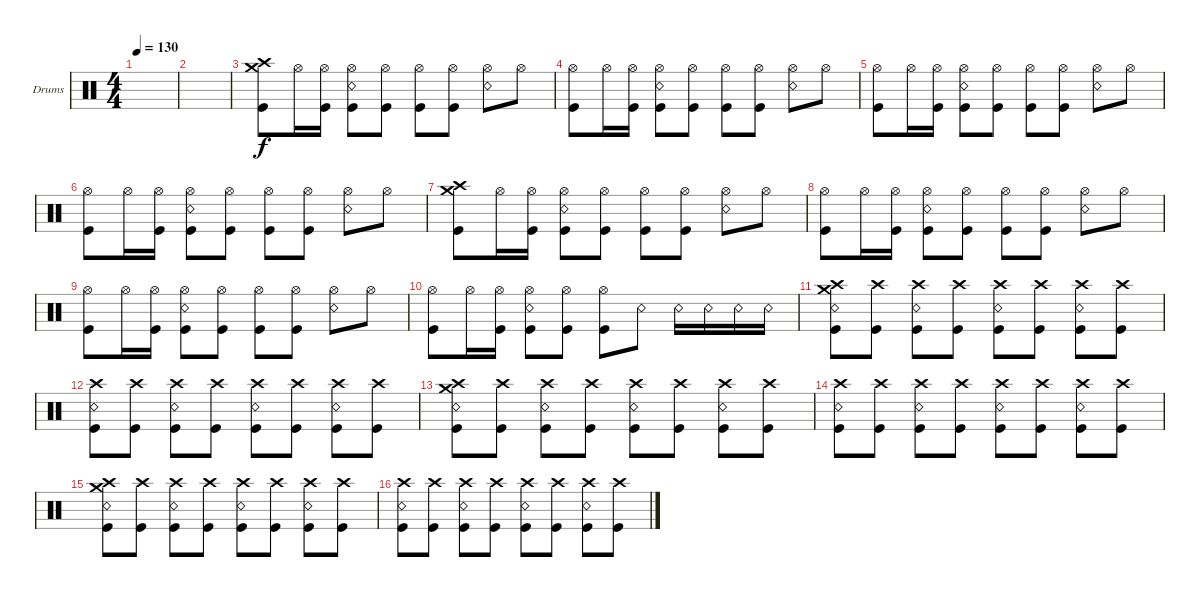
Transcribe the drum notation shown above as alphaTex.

\defaultSystemsLayout 4
\bracketExtendMode groupsimilarinstruments
\firstSystemTrackNameOrientation horizontal
\otherSystemsTrackNameOrientation horizontal
\track ("Drumkit" "Drums") {instrument percussion}
\staff {score}
\articulation defaults
\ts (4 4)
\tempo 130
\clef neutral
\ks c
|
|
("Crash medium (hit)" "Crash high (hit)" "Kick (hit)").8 "Hi-Hat (open)".16 ("Hi-Hat (open)" "Kick (hit)").16 ("Hi-Hat (open)" "Kick (hit)" "Snare (rim shot)").8 ("Hi-Hat (open)" "Kick (hit)").8 ("Kick (hit)" "Hi-Hat (open)").8 ("Kick (hit)" "Hi-Hat (open)").8 ("Hi-Hat (open)" "Snare (rim shot)").8 "Hi-Hat (open)".8 |
("Kick (hit)" "Hi-Hat (open)").8 "Hi-Hat (open)".16 ("Hi-Hat (open)" "Kick (hit)").16 ("Hi-Hat (open)" "Kick (hit)" "Snare (rim shot)").8 ("Hi-Hat (open)" "Kick (hit)").8 ("Kick (hit)" "Hi-Hat (open)").8 ("Kick (hit)" "Hi-Hat (open)").8 ("Hi-Hat (open)" "Snare (rim shot)").8 "Hi-Hat (open)".8 |
("Kick (hit)" "Hi-Hat (open)").8 "Hi-Hat (open)".16 ("Hi-Hat (open)" "Kick (hit)").16 ("Hi-Hat (open)" "Kick (hit)" "Snare (rim shot)").8 ("Hi-Hat (open)" "Kick (hit)").8 ("Kick (hit)" "Hi-Hat (open)").8 ("Kick (hit)" "Hi-Hat (open)").8 ("Hi-Hat (open)" "Snare (rim shot)").8 "Hi-Hat (open)".8 |
("Kick (hit)" "Hi-Hat (open)").8 "Hi-Hat (open)".16 ("Hi-Hat (open)" "Kick (hit)").16 ("Hi-Hat (open)" "Kick (hit)" "Snare (rim shot)").8 ("Hi-Hat (open)" "Kick (hit)").8 ("Kick (hit)" "Hi-Hat (open)").8 ("Kick (hit)" "Hi-Hat (open)").8 ("Hi-Hat (open)" "Snare (rim shot)").8 "Hi-Hat (open)".8 |
("Crash medium (hit)" "Crash high (hit)" "Kick (hit)").8 "Hi-Hat (open)".16 ("Hi-Hat (open)" "Kick (hit)").16 ("Hi-Hat (open)" "Kick (hit)" "Snare (rim shot)").8 ("Hi-Hat (open)" "Kick (hit)").8 ("Kick (hit)" "Hi-Hat (open)").8 ("Kick (hit)" "Hi-Hat (open)").8 ("Hi-Hat (open)" "Snare (rim shot)").8 "Hi-Hat (open)".8 |
("Kick (hit)" "Hi-Hat (open)").8 "Hi-Hat (open)".16 ("Hi-Hat (open)" "Kick (hit)").16 ("Hi-Hat (open)" "Kick (hit)" "Snare (rim shot)").8 ("Hi-Hat (open)" "Kick (hit)").8 ("Kick (hit)" "Hi-Hat (open)").8 ("Kick (hit)" "Hi-Hat (open)").8 ("Hi-Hat (open)" "Snare (rim shot)").8 "Hi-Hat (open)".8 |
("Kick (hit)" "Hi-Hat (open)").8 "Hi-Hat (open)".16 ("Hi-Hat (open)" "Kick (hit)").16 ("Hi-Hat (open)" "Kick (hit)" "Snare (rim shot)").8 ("Hi-Hat (open)" "Kick (hit)").8 ("Kick (hit)" "Hi-Hat (open)").8 ("Kick (hit)" "Hi-Hat (open)").8 ("Hi-Hat (open)" "Snare (rim shot)").8 "Hi-Hat (open)".8 |
("Kick (hit)" "Hi-Hat (open)").8 "Hi-Hat (open)".16 ("Hi-Hat (open)" "Kick (hit)").16 ("Hi-Hat (open)" "Kick (hit)" "Snare (rim shot)").8 ("Hi-Hat (open)" "Kick (hit)").8 ("Kick (hit)" "Hi-Hat (open)").8 "Snare (rim shot)".8 "Snare (rim shot)".16 "Snare (rim shot)".16 "Snare (rim shot)".16 "Snare (rim shot)".16 |
("Crash medium (hit)" "Crash high (hit)" "Kick (hit)" "Snare (rim shot)").8 ("Crash high (hit)" "Kick (hit)").8 ("Crash high (hit)" "Kick (hit)" "Snare (rim shot)").8 ("Crash high (hit)" "Kick (hit)").8 ("Crash high (hit)" "Kick (hit)" "Snare (rim shot)").8 ("Crash high (hit)" "Kick (hit)").8 ("Crash high (hit)" "Kick (hit)" "Snare (rim shot)").8 ("Crash high (hit)" "Kick (hit)").8 |
("Crash high (hit)" "Kick (hit)" "Snare (rim shot)").8 ("Crash high (hit)" "Kick (hit)").8 ("Crash high (hit)" "Kick (hit)" "Snare (rim shot)").8 ("Crash high (hit)" "Kick (hit)").8 ("Crash high (hit)" "Kick (hit)" "Snare (rim shot)").8 ("Crash high (hit)" "Kick (hit)").8 ("Crash high (hit)" "Kick (hit)" "Snare (rim shot)").8 ("Crash high (hit)" "Kick (hit)").8 |
("Crash medium (hit)" "Crash high (hit)" "Kick (hit)" "Snare (rim shot)").8 ("Crash high (hit)" "Kick (hit)").8 ("Crash high (hit)" "Kick (hit)" "Snare (rim shot)").8 ("Crash high (hit)" "Kick (hit)").8 ("Crash high (hit)" "Kick (hit)" "Snare (rim shot)").8 ("Crash high (hit)" "Kick (hit)").8 ("Crash high (hit)" "Kick (hit)" "Snare (rim shot)").8 ("Crash high (hit)" "Kick (hit)").8 |
("Crash high (hit)" "Kick (hit)" "Snare (rim shot)").8 ("Crash high (hit)" "Kick (hit)").8 ("Crash high (hit)" "Kick (hit)" "Snare (rim shot)").8 ("Crash high (hit)" "Kick (hit)").8 ("Crash high (hit)" "Kick (hit)" "Snare (rim shot)").8 ("Crash high (hit)" "Kick (hit)").8 ("Crash high (hit)" "Kick (hit)" "Snare (rim shot)").8 ("Crash high (hit)" "Kick (hit)").8 |
("Crash medium (hit)" "Crash high (hit)" "Kick (hit)" "Snare (rim shot)").8 ("Crash high (hit)" "Kick (hit)").8 ("Crash high (hit)" "Kick (hit)" "Snare (rim shot)").8 ("Crash high (hit)" "Kick (hit)").8 ("Crash high (hit)" "Kick (hit)" "Snare (rim shot)").8 ("Crash high (hit)" "Kick (hit)").8 ("Crash high (hit)" "Kick (hit)" "Snare (rim shot)").8 ("Crash high (hit)" "Kick (hit)").8 |
("Crash high (hit)" "Kick (hit)" "Snare (rim shot)").8 ("Crash high (hit)" "Kick (hit)").8 ("Crash high (hit)" "Kick (hit)" "Snare (rim shot)").8 ("Crash high (hit)" "Kick (hit)").8 ("Crash high (hit)" "Kick (hit)" "Snare (rim shot)").8 ("Crash high (hit)" "Kick (hit)").8 ("Crash high (hit)" "Kick (hit)" "Snare (rim shot)").8 ("Crash high (hit)" "Kick (hit)").8
